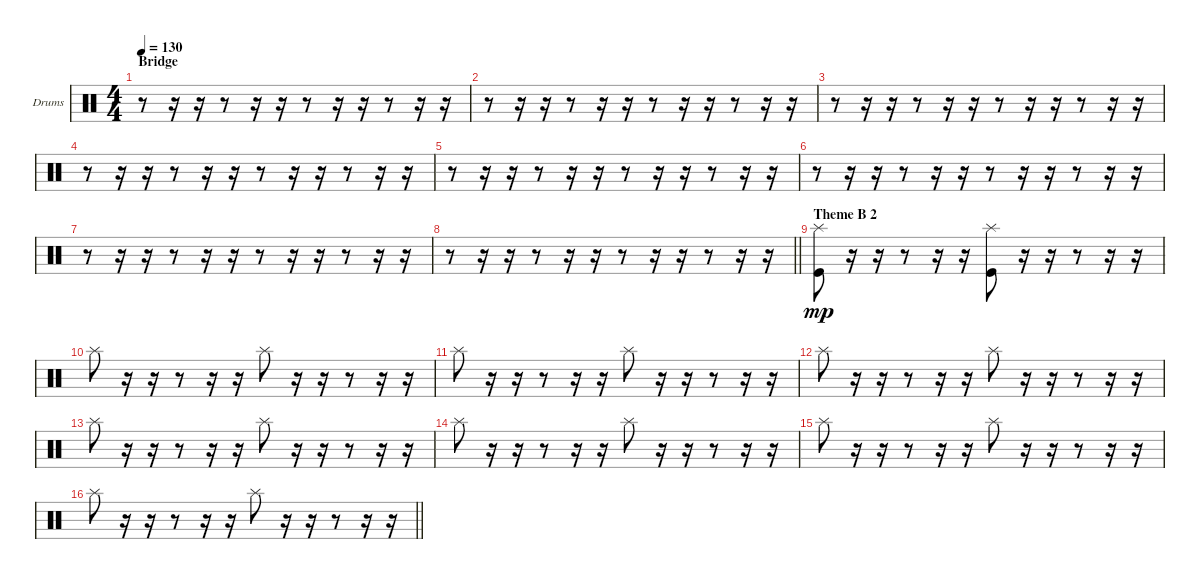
\bracketExtendMode groupsimilarinstruments
\firstSystemTrackNameOrientation horizontal
\otherSystemsTrackNameOrientation horizontal
\track ("Drumkit" "Drums") {instrument percussion}
\staff {score}
\articulation defaults
\ts (4 4)
\section ("" "Bridge")
\tempo 130
\clef neutral
\ks c
r.8{dy mp} r.16 r.16 r.8 r.16 r.16 r.8 r.16 r.16 r.8 r.16 r.16 |
r.8 r.16 r.16 r.8 r.16 r.16 r.8 r.16 r.16 r.8 r.16 r.16 |
r.8 r.16 r.16 r.8 r.16 r.16 r.8 r.16 r.16 r.8 r.16 r.16 |
r.8 r.16 r.16 r.8 r.16 r.16 r.8 r.16 r.16 r.8 r.16 r.16 |
r.8 r.16 r.16 r.8 r.16 r.16 r.8 r.16 r.16 r.8 r.16 r.16 |
r.8 r.16 r.16 r.8 r.16 r.16 r.8 r.16 r.16 r.8 r.16 r.16 |
r.8 r.16 r.16 r.8 r.16 r.16 r.8 r.16 r.16 r.8 r.16 r.16 |
\barLineRight lightlight
r.8 r.16 r.16 r.8 r.16 r.16 r.8 r.16 r.16 r.8 r.16 r.16 |
\section ("" "Theme B 2")
("Splash (hit)" "Kick (hit)").8 r.16 r.16 r.8 r.16 r.16 ("Splash (hit)" "Kick (hit)").8 r.16 r.16 r.8 r.16 r.16 |
"Splash (hit)".8 r.16 r.16 r.8 r.16 r.16 "Splash (hit)".8 r.16 r.16 r.8 r.16 r.16 |
"Splash (hit)".8 r.16 r.16 r.8 r.16 r.16 "Splash (hit)".8 r.16 r.16 r.8 r.16 r.16 |
"Splash (hit)".8 r.16 r.16 r.8 r.16 r.16 "Splash (hit)".8 r.16 r.16 r.8 r.16 r.16 |
"Splash (hit)".8 r.16 r.16 r.8 r.16 r.16 "Splash (hit)".8 r.16 r.16 r.8 r.16 r.16 |
"Splash (hit)".8 r.16 r.16 r.8 r.16 r.16 "Splash (hit)".8 r.16 r.16 r.8 r.16 r.16 |
"Splash (hit)".8 r.16 r.16 r.8 r.16 r.16 "Splash (hit)".8 r.16 r.16 r.8 r.16 r.16 |
\barLineRight lightlight "Splash (hit)".8
r.16 r.16 r.8 r.16 r.16 "Splash (hit)".8 r.16 r.16 r.8 r.16 r.16
